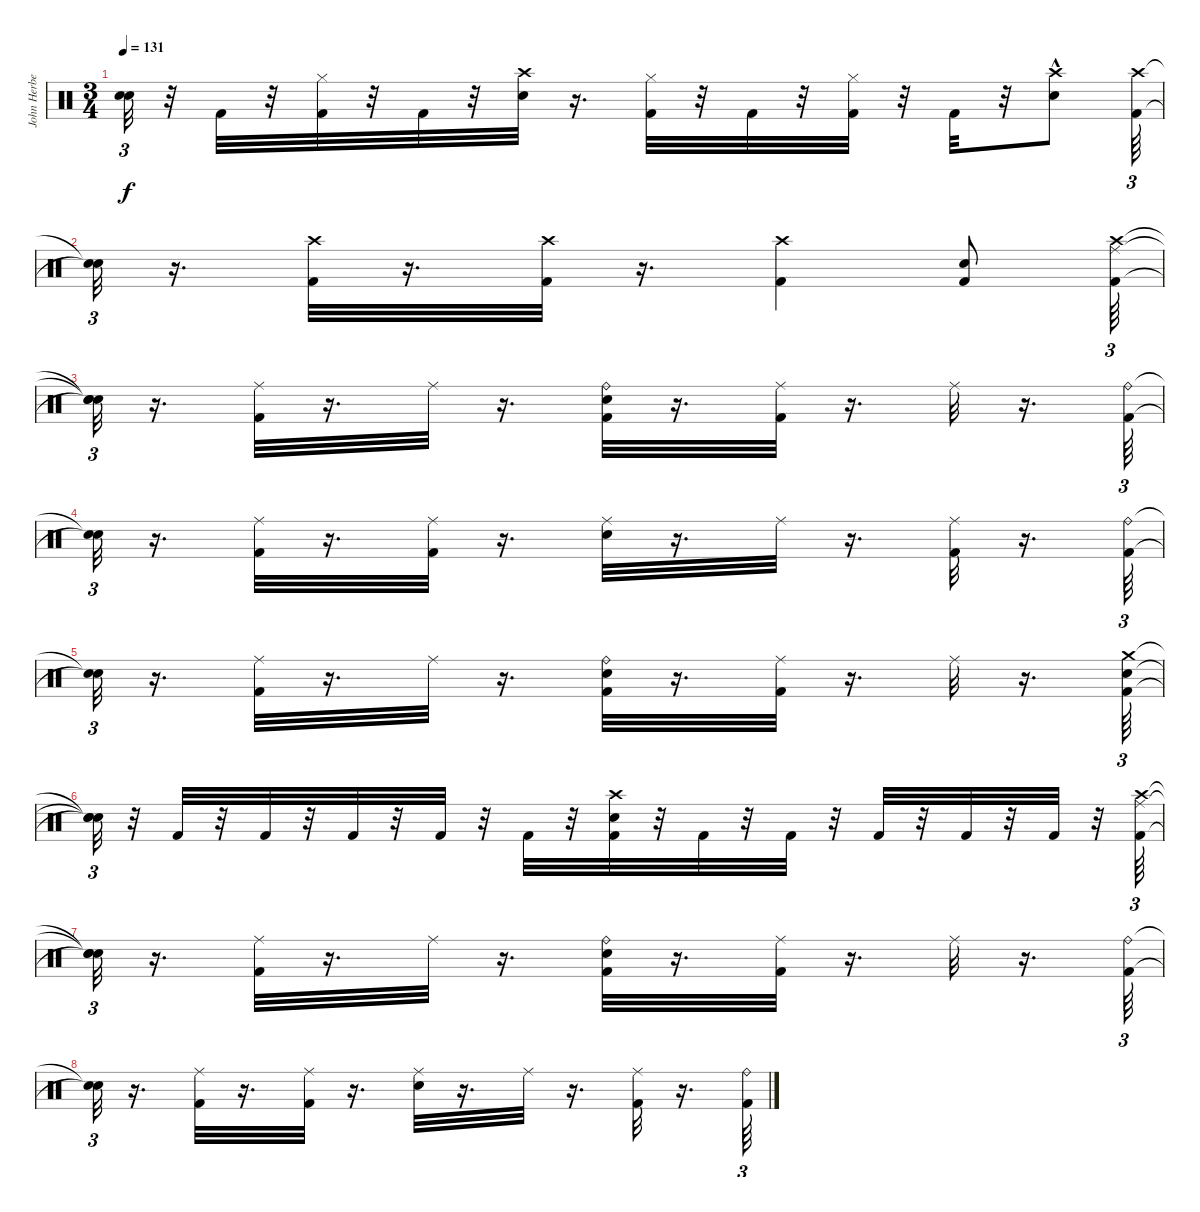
\track ("John Herbert" "John Herbe") {instrument percussion}
\staff {score}
\articulation defaults
\ts (3 4)
\tempo 131
\clef neutral
\ks c
("Snare (hit)"{t} "Snare (hit)"{t}).32{tu (3 2) dy f} r.32 "Kick (hit) 2".32 r.32 ("Hi-Hat (closed)" "Kick (hit) 2").32 r.32 "Kick (hit) 2".32 r.32 ("Crash high (hit)" "Snare (hit) 2").32 r.16{d} ("Hi-Hat (closed)" "Kick (hit) 2").32 r.32 "Kick (hit) 2".32 r.32 ("Hi-Hat (closed)" "Kick (hit) 2").32 r.32 "Kick (hit) 2".32 r.32 ("Crash high (hit)" "Snare (hit) 2"{hac}).8 ("Kick (hit) 2" "Crash high (hit)").64{tu (3 2)} |
("Snare (hit)"{t} "Snare (hit)"{t}).32{tu (3 2)} r.16{d} ("Kick (hit) 2" "Crash high (hit)").32 r.16{d} ("Kick (hit) 2" "Crash high (hit)").32 r.16{d} ("Kick (hit) 2" "Crash high (hit)").4 ("Snare (hit) 2" "Kick (hit) 2").8 ("Crash high (hit)" "Kick (hit) 2" "Ride (middle)").64{tu (3 2)} |
("Snare (hit)"{t} "Snare (hit)"{t} "Snare (hit)"{t}).32{tu (3 2)} r.16{d} ("Kick (hit) 2" "Ride (middle)").32 r.16{d} "Ride (middle)".32 r.16{d} ("Kick (hit) 2" "Snare (hit) 2" "Ride (bell)").32 r.16{d} ("Kick (hit) 2" "Ride (middle)").32 r.16{d} "Ride (middle)".32 r.16{d} ("Kick (hit) 2" "Ride (bell)").64{tu (3 2)} |
("Snare (hit)"{t} "Snare (hit)"{t}).32{tu (3 2)} r.16{d} ("Kick (hit) 2" "Ride (middle)").32 r.16{d} ("Kick (hit) 2" "Ride (middle)").32 r.16{d} ("Snare (hit) 2" "Ride (middle)").32 r.16{d} "Ride (middle)".32 r.16{d} ("Kick (hit) 2" "Ride (middle)").32 r.16{d} ("Kick (hit) 2" "Ride (bell)").64{tu (3 2)} |
("Snare (hit)"{t} "Snare (hit)"{t}).32{tu (3 2)} r.16{d} ("Kick (hit) 2" "Ride (middle)").32 r.16{d} "Ride (middle)".32 r.16{d} ("Kick (hit) 2" "Snare (hit) 2" "Ride (bell)").32 r.16{d} ("Kick (hit) 2" "Ride (middle)").32 r.16{d} "Ride (middle)".32 r.16{d} ("Snare (hit) 2" "Kick (hit) 2" "Crash medium (hit)").64{tu (3 2)} |
("Snare (hit)"{t} "Snare (hit)"{t} "Snare (hit)"{t}).32{tu (3 2)} r.32 "Kick (hit) 2".32 r.32 "Kick (hit) 2".32 r.32 "Kick (hit) 2".32 r.32 "Kick (hit) 2".32 r.32 "Kick (hit) 2".32 r.32 ("Crash high (hit)" "Snare (hit) 2" "Kick (hit) 2").32 r.32 "Kick (hit) 2".32 r.32 "Kick (hit) 2".32 r.32 "Kick (hit) 2".32 r.32 "Kick (hit) 2".32 r.32 "Kick (hit) 2".32 r.32 ("Crash high (hit)" "Kick (hit) 2" "Ride (middle)").64{tu (3 2)} |
("Snare (hit)"{t} "Snare (hit)"{t} "Snare (hit)"{t}).32{tu (3 2)} r.16{d} ("Kick (hit) 2" "Ride (middle)").32 r.16{d} "Ride (middle)".32 r.16{d} ("Kick (hit) 2" "Snare (hit) 2" "Ride (bell)").32 r.16{d} ("Kick (hit) 2" "Ride (middle)").32 r.16{d} "Ride (middle)".32 r.16{d} ("Kick (hit) 2" "Ride (bell)").64{tu (3 2)} |
("Snare (hit)"{t} "Snare (hit)"{t}).32{tu (3 2)} r.16{d} ("Kick (hit) 2" "Ride (middle)").32 r.16{d} ("Kick (hit) 2" "Ride (middle)").32 r.16{d} ("Snare (hit) 2" "Ride (middle)").32 r.16{d} "Ride (middle)".32 r.16{d} ("Kick (hit) 2" "Ride (middle)").32 r.16{d} ("Kick (hit) 2" "Ride (bell)").64{tu (3 2)}
